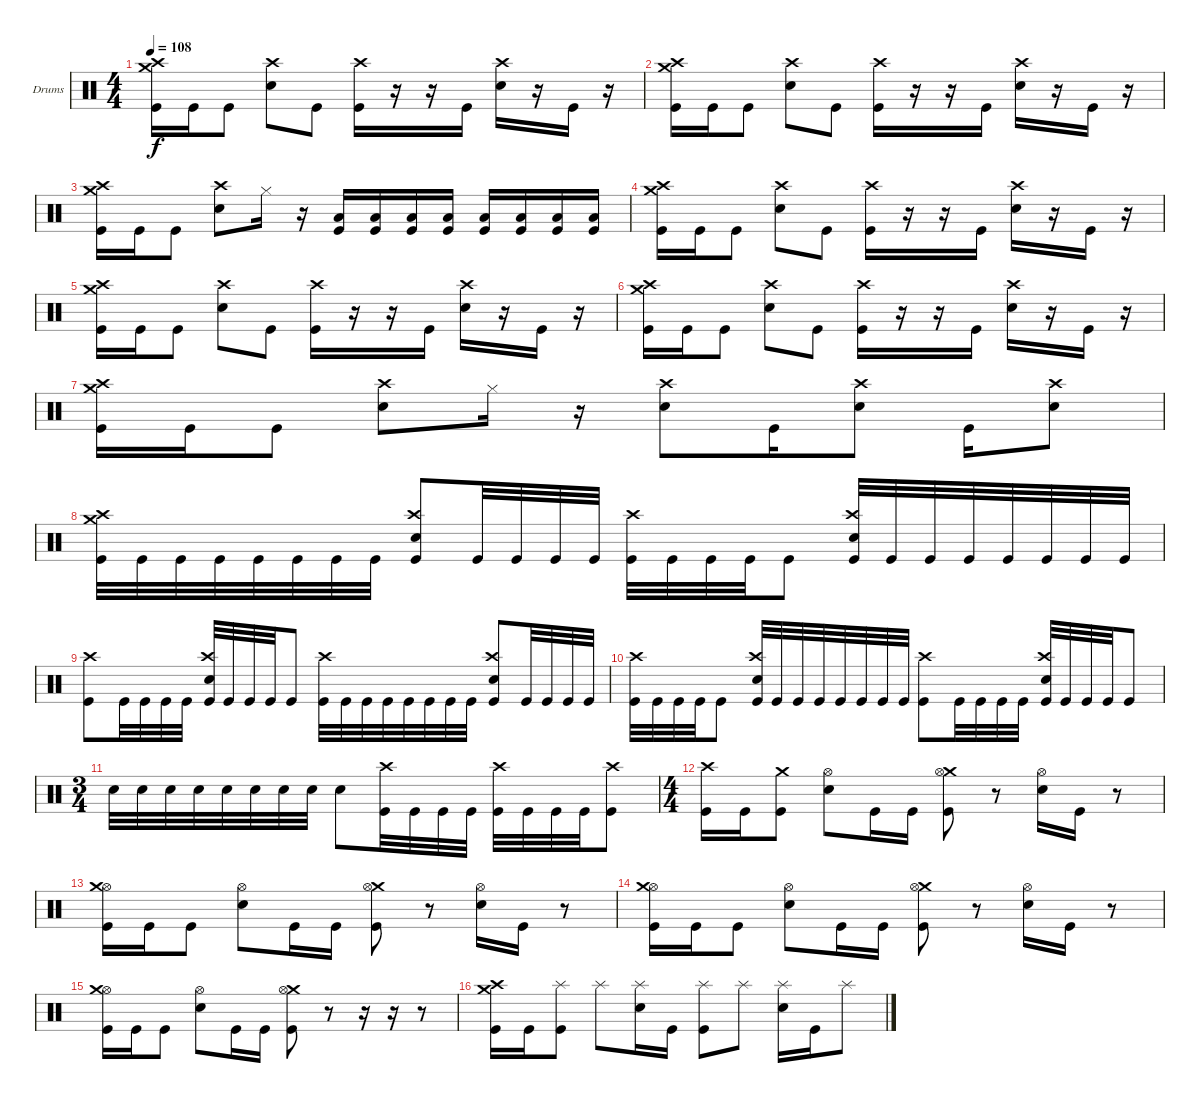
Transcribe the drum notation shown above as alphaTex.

\defaultSystemsLayout 4
\bracketExtendMode groupsimilarinstruments
\firstSystemTrackNameOrientation horizontal
\otherSystemsTrackNameOrientation horizontal
\track ("Drumkit" "Drums") {instrument percussion}
\staff {score}
\articulation defaults
\ts (4 4)
\tempo 108
\clef neutral
\ks c
("Kick (hit)" "Crash high (hit)" "Crash medium (hit)").16{dy f} "Kick (hit)".16 "Kick (hit)".8 ("Snare (hit) 2" "Crash high (hit)").8 "Kick (hit)".8 ("Kick (hit)" "Crash high (hit)").16 r.16 r.16 "Kick (hit)".16 ("Snare (hit) 2" "Crash high (hit)").16 r.16 "Kick (hit)".16 r.16 |
("Kick (hit)" "Crash high (hit)" "Crash medium (hit)").16 "Kick (hit)".16 "Kick (hit)".8 ("Snare (hit) 2" "Crash high (hit)").8 "Kick (hit)".8 ("Kick (hit)" "Crash high (hit)").16 r.16 r.16 "Kick (hit)".16 ("Snare (hit) 2" "Crash high (hit)").16 r.16 "Kick (hit)".16 r.16 |
("Kick (hit)" "Crash high (hit)" "Crash medium (hit)").16 "Kick (hit)".16 "Kick (hit)".8 ("Snare (hit) 2" "Crash high (hit)").8 "Hi-Hat (closed)".16 r.16 ("Kick (hit)" "Low Tom (hit)").16 ("Kick (hit)" "Low Tom (hit)").16 ("Kick (hit)" "Low Tom (hit)").16 ("Kick (hit)" "Low Tom (hit)").16 ("Kick (hit)" "Low Tom (hit)").16 ("Kick (hit)" "Low Tom (hit)").16 ("Kick (hit)" "Low Tom (hit)").16 ("Kick (hit)" "Low Tom (hit)").16 |
("Kick (hit)" "Crash high (hit)" "Crash medium (hit)").16 "Kick (hit)".16 "Kick (hit)".8 ("Snare (hit) 2" "Crash high (hit)").8 "Kick (hit)".8 ("Kick (hit)" "Crash high (hit)").16 r.16 r.16 "Kick (hit)".16 ("Snare (hit) 2" "Crash high (hit)").16 r.16 "Kick (hit)".16 r.16 |
("Kick (hit)" "Crash high (hit)" "Crash medium (hit)").16 "Kick (hit)".16 "Kick (hit)".8 ("Snare (hit) 2" "Crash high (hit)").8 "Kick (hit)".8 ("Kick (hit)" "Crash high (hit)").16 r.16 r.16 "Kick (hit)".16 ("Snare (hit) 2" "Crash high (hit)").16 r.16 "Kick (hit)".16 r.16 |
("Kick (hit)" "Crash high (hit)" "Crash medium (hit)").16 "Kick (hit)".16 "Kick (hit)".8 ("Snare (hit) 2" "Crash high (hit)").8 "Kick (hit)".8 ("Kick (hit)" "Crash high (hit)").16 r.16 r.16 "Kick (hit)".16 ("Snare (hit) 2" "Crash high (hit)").16 r.16 "Kick (hit)".16 r.16 |
("Kick (hit)" "Crash high (hit)" "Crash medium (hit)").16 "Kick (hit)".16 "Kick (hit)".8 ("Snare (hit) 2" "Crash high (hit)").8 "Hi-Hat (closed)".16 r.16 ("Snare (hit) 2" "Crash high (hit)").8 "Kick (hit)".16 ("Snare (hit) 2" "Crash high (hit)").8 "Kick (hit)".16 ("Snare (hit) 2" "Crash high (hit)").8 |
("Kick (hit)" "Crash high (hit)" "Crash medium (hit)").32 "Kick (hit)".32 "Kick (hit)".32 "Kick (hit)".32 "Kick (hit)".32 "Kick (hit)".32 "Kick (hit)".32 "Kick (hit)".32 ("Kick (hit)" "Crash high (hit)" "Snare (hit) 2").8 "Kick (hit)".32 "Kick (hit)".32 "Kick (hit)".32 "Kick (hit)".32 ("Kick (hit)" "Crash high (hit)").32 "Kick (hit)".32 "Kick (hit)".32 "Kick (hit)".32 "Kick (hit)".8 ("Kick (hit)" "Crash high (hit)" "Snare (hit) 2").32 "Kick (hit)".32 "Kick (hit)".32 "Kick (hit)".32 "Kick (hit)".32 "Kick (hit)".32 "Kick (hit)".32 "Kick (hit)".32 |
("Kick (hit)" "Crash high (hit)").8 "Kick (hit)".32 "Kick (hit)".32 "Kick (hit)".32 "Kick (hit)".32 ("Kick (hit)" "Snare (hit) 2" "Crash high (hit)").32 "Kick (hit)".32 "Kick (hit)".32 "Kick (hit)".32 "Kick (hit)".8 ("Kick (hit)" "Crash high (hit)").32 "Kick (hit)".32 "Kick (hit)".32 "Kick (hit)".32 "Kick (hit)".32 "Kick (hit)".32 "Kick (hit)".32 "Kick (hit)".32 ("Kick (hit)" "Crash high (hit)" "Snare (hit) 2").8 "Kick (hit)".32 "Kick (hit)".32 "Kick (hit)".32 "Kick (hit)".32 |
("Kick (hit)" "Crash high (hit)").32 "Kick (hit)".32 "Kick (hit)".32 "Kick (hit)".32 "Kick (hit)".8 ("Kick (hit)" "Snare (hit) 2" "Crash high (hit)").32 "Kick (hit)".32 "Kick (hit)".32 "Kick (hit)".32 "Kick (hit)".32 "Kick (hit)".32 "Kick (hit)".32 "Kick (hit)".32 ("Kick (hit)" "Crash high (hit)").8 "Kick (hit)".32 "Kick (hit)".32 "Kick (hit)".32 "Kick (hit)".32 ("Kick (hit)" "Snare (hit) 2" "Crash high (hit)").32 "Kick (hit)".32 "Kick (hit)".32 "Kick (hit)".32 "Kick (hit)".8 |
\ts (3 4)
"Snare (hit) 2".32 "Snare (hit) 2".32 "Snare (hit) 2".32 "Snare (hit) 2".32 "Snare (hit) 2".32 "Snare (hit) 2".32 "Snare (hit) 2".32 "Snare (hit) 2".32 "Snare (hit) 2".8 ("Kick (hit)" "Crash high (hit)").32 "Kick (hit)".32 "Kick (hit)".32 "Kick (hit)".32 ("Kick (hit)" "Crash high (hit)").32 "Kick (hit)".32 "Kick (hit)".32 "Kick (hit)".32 ("Kick (hit)" "Crash high (hit)").8 |
\ts (4 4)
("Kick (hit)" "Crash high (hit)").16 "Kick (hit)".16 ("Kick (hit)" "Crash medium (hit)").8 ("Snare (hit) 2" "Hi-Hat (open)").8 "Kick (hit)".16 "Kick (hit)".16 ("Kick (hit)" "Crash medium (hit)" "Hi-Hat (open)").8 r.8 ("Snare (hit) 2" "Hi-Hat (open)").16 "Kick (hit)".16 r.8 |
("Kick (hit)" "Hi-Hat (open)" "Crash medium (hit)").16 "Kick (hit)".16 "Kick (hit)".8 ("Snare (hit) 2" "Hi-Hat (open)").8 "Kick (hit)".16 "Kick (hit)".16 ("Kick (hit)" "Crash medium (hit)" "Hi-Hat (open)").8 r.8 ("Snare (hit) 2" "Hi-Hat (open)").16 "Kick (hit)".16 r.8 |
("Kick (hit)" "Hi-Hat (open)" "Crash medium (hit)").16 "Kick (hit)".16 "Kick (hit)".8 ("Snare (hit) 2" "Hi-Hat (open)").8 "Kick (hit)".16 "Kick (hit)".16 ("Kick (hit)" "Crash medium (hit)" "Hi-Hat (open)").8 r.8 ("Snare (hit) 2" "Hi-Hat (open)").16 "Kick (hit)".16 r.8 |
("Kick (hit)" "Hi-Hat (open)" "Crash medium (hit)").16 "Kick (hit)".16 "Kick (hit)".8 ("Snare (hit) 2" "Hi-Hat (open)").8 "Kick (hit)".16 "Kick (hit)".16 ("Kick (hit)" "Crash medium (hit)" "Hi-Hat (open)").8 r.8 r.16 r.16 r.8 |
("Kick (hit)" "Crash medium (hit)" "Crash high (hit)").16 "Kick (hit)".16 ("Kick (hit)" "Splash (hit)").8 "Splash (hit)".8 ("Splash (hit)" "Snare (hit) 2").16 "Kick (hit)".16 ("Splash (hit)" "Kick (hit)").8 "Splash (hit)".8 ("Splash (hit)" "Snare (hit) 2").16 "Kick (hit)".16 "Splash (hit)".8
